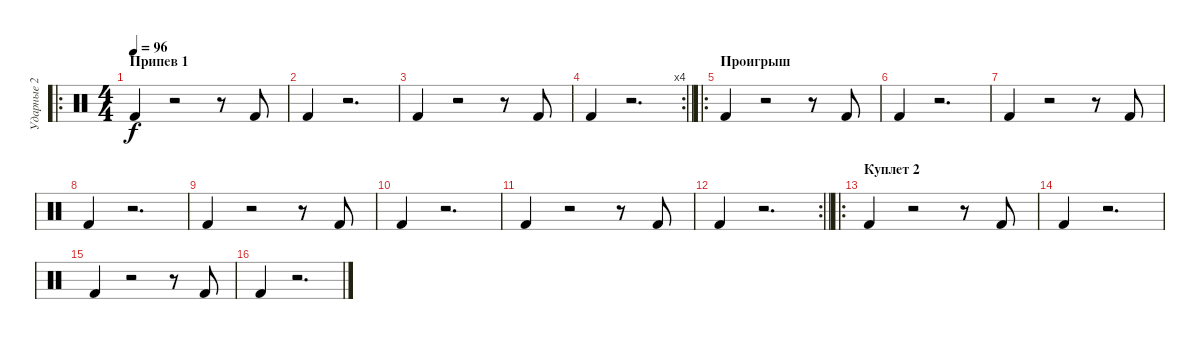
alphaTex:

\track ("Ударные 2" "Ударные 2") {instrument percussion}
\staff {score}
\articulation defaults
\ro
\ts (4 4)
\section ("" "Припев 1")
\tempo 96
\clef neutral
\ks c "Kick (hit) 2".4{dy f}
r.2 r.8 "Kick (hit) 2".8 |
"Kick (hit) 2".4 r.2{d} |
"Kick (hit) 2".4 r.2 r.8 "Kick (hit) 2".8 |
\rc 4
\barLineRight lightlight "Kick (hit) 2".4
r.2{d} |
\ro
\section ("" "Проигрыш")
"Kick (hit) 2".4 r.2 r.8 "Kick (hit) 2".8 |
"Kick (hit) 2".4 r.2{d} |
"Kick (hit) 2".4 r.2 r.8 "Kick (hit) 2".8 |
"Kick (hit) 2".4 r.2{d} |
"Kick (hit) 2".4 r.2 r.8 "Kick (hit) 2".8 |
"Kick (hit) 2".4 r.2{d} |
"Kick (hit) 2".4 r.2 r.8 "Kick (hit) 2".8 |
\rc 2
\barLineRight lightlight "Kick (hit) 2".4
r.2{d} |
\ro
\section ("" "Куплет 2")
"Kick (hit) 2".4 r.2 r.8 "Kick (hit) 2".8 |
"Kick (hit) 2".4 r.2{d} |
"Kick (hit) 2".4 r.2 r.8 "Kick (hit) 2".8 |
"Kick (hit) 2".4 r.2{d}
